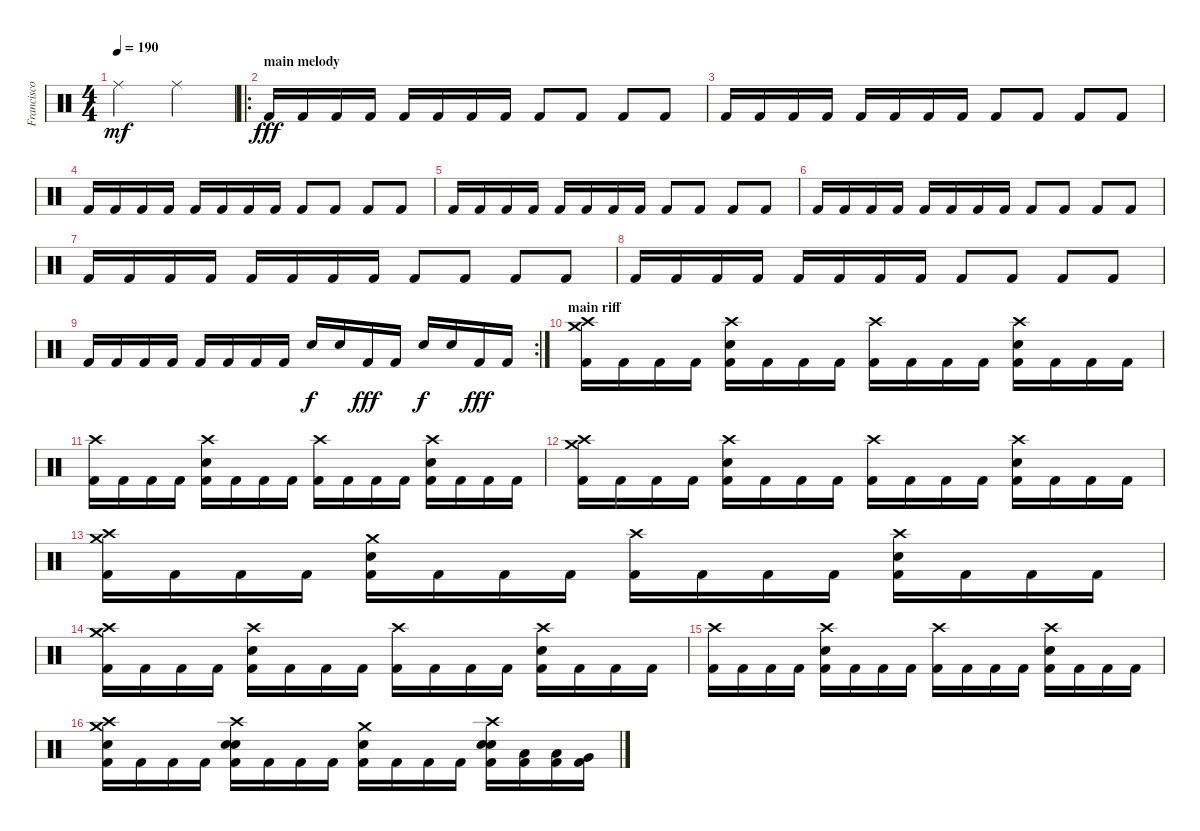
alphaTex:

\track ("Francisco Izquierdo (Percusión)" "Francisco ") {instrument percussion}
\staff {score}
\articulation defaults
\ts (4 4)
\tempo 190
\clef neutral
\ks c "Ride (middle)".2{dy mf} "Ride (middle)".2
|
\ro
\section ("" "main melody")
"Kick (hit) 2".16{dy fff} "Kick (hit) 2".16 "Kick (hit) 2".16 "Kick (hit) 2".16 "Kick (hit) 2".16 "Kick (hit) 2".16 "Kick (hit) 2".16 "Kick (hit) 2".16 "Kick (hit) 2".8 "Kick (hit) 2".8 "Kick (hit) 2".8 "Kick (hit) 2".8 |
"Kick (hit) 2".16 "Kick (hit) 2".16 "Kick (hit) 2".16 "Kick (hit) 2".16 "Kick (hit) 2".16 "Kick (hit) 2".16 "Kick (hit) 2".16 "Kick (hit) 2".16 "Kick (hit) 2".8 "Kick (hit) 2".8 "Kick (hit) 2".8 "Kick (hit) 2".8 |
"Kick (hit) 2".16 "Kick (hit) 2".16 "Kick (hit) 2".16 "Kick (hit) 2".16 "Kick (hit) 2".16 "Kick (hit) 2".16 "Kick (hit) 2".16 "Kick (hit) 2".16 "Kick (hit) 2".8 "Kick (hit) 2".8 "Kick (hit) 2".8 "Kick (hit) 2".8 |
"Kick (hit) 2".16 "Kick (hit) 2".16 "Kick (hit) 2".16 "Kick (hit) 2".16 "Kick (hit) 2".16 "Kick (hit) 2".16 "Kick (hit) 2".16 "Kick (hit) 2".16 "Kick (hit) 2".8 "Kick (hit) 2".8 "Kick (hit) 2".8 "Kick (hit) 2".8 |
"Kick (hit) 2".16 "Kick (hit) 2".16 "Kick (hit) 2".16 "Kick (hit) 2".16 "Kick (hit) 2".16 "Kick (hit) 2".16 "Kick (hit) 2".16 "Kick (hit) 2".16 "Kick (hit) 2".8 "Kick (hit) 2".8 "Kick (hit) 2".8 "Kick (hit) 2".8 |
"Kick (hit) 2".16 "Kick (hit) 2".16 "Kick (hit) 2".16 "Kick (hit) 2".16 "Kick (hit) 2".16 "Kick (hit) 2".16 "Kick (hit) 2".16 "Kick (hit) 2".16 "Kick (hit) 2".8 "Kick (hit) 2".8 "Kick (hit) 2".8 "Kick (hit) 2".8 |
"Kick (hit) 2".16 "Kick (hit) 2".16 "Kick (hit) 2".16 "Kick (hit) 2".16 "Kick (hit) 2".16 "Kick (hit) 2".16 "Kick (hit) 2".16 "Kick (hit) 2".16 "Kick (hit) 2".8 "Kick (hit) 2".8 "Kick (hit) 2".8 "Kick (hit) 2".8 |
\rc 2 "Kick (hit) 2".16 "Kick (hit) 2".16 "Kick (hit) 2".16 "Kick (hit) 2".16 "Kick (hit) 2".16 "Kick (hit) 2".16 "Kick (hit) 2".16 "Kick (hit) 2".16 "Electric Snare (hit)".16{dy f} "Electric Snare (hit)".16 "Kick (hit) 2".16{dy fff} "Kick (hit) 2".16 "Electric Snare (hit)".16{dy f} "Electric Snare (hit)".16 "Kick (hit) 2".16{dy fff} "Kick (hit) 2".16
|
\section ("" "main riff")
("Crash medium (hit)" "Crash high (hit)" "Kick (hit) 2").16 "Kick (hit) 2".16 "Kick (hit) 2".16 "Kick (hit) 2".16 ("Crash high (hit)" "Electric Snare (hit)" "Kick (hit) 2").16 "Kick (hit) 2".16 "Kick (hit) 2".16 "Kick (hit) 2".16 ("Crash high (hit)" "Kick (hit) 2").16 "Kick (hit) 2".16 "Kick (hit) 2".16 "Kick (hit) 2".16 ("Crash high (hit)" "Electric Snare (hit)" "Kick (hit) 2").16 "Kick (hit) 2".16 "Kick (hit) 2".16 "Kick (hit) 2".16 |
("Crash high (hit)" "Kick (hit) 2").16 "Kick (hit) 2".16 "Kick (hit) 2".16 "Kick (hit) 2".16 ("Crash high (hit)" "Electric Snare (hit)" "Kick (hit) 2").16 "Kick (hit) 2".16 "Kick (hit) 2".16 "Kick (hit) 2".16 ("Crash high (hit)" "Kick (hit) 2").16 "Kick (hit) 2".16 "Kick (hit) 2".16 "Kick (hit) 2".16 ("Crash high (hit)" "Electric Snare (hit)" "Kick (hit) 2").16 "Kick (hit) 2".16 "Kick (hit) 2".16 "Kick (hit) 2".16 |
("Crash medium (hit)" "Crash high (hit)" "Kick (hit) 2").16 "Kick (hit) 2".16 "Kick (hit) 2".16 "Kick (hit) 2".16 ("Crash high (hit)" "Electric Snare (hit)" "Kick (hit) 2").16 "Kick (hit) 2".16 "Kick (hit) 2".16 "Kick (hit) 2".16 ("Crash high (hit)" "Kick (hit) 2").16 "Kick (hit) 2".16 "Kick (hit) 2".16 "Kick (hit) 2".16 ("Crash high (hit)" "Electric Snare (hit)" "Kick (hit) 2").16 "Kick (hit) 2".16 "Kick (hit) 2".16 "Kick (hit) 2".16 |
("Crash high (hit)" "Crash medium (hit)" "Kick (hit) 2").16 "Kick (hit) 2".16 "Kick (hit) 2".16 "Kick (hit) 2".16 ("Crash medium (hit)" "Electric Snare (hit)" "Kick (hit) 2").16 "Kick (hit) 2".16 "Kick (hit) 2".16 "Kick (hit) 2".16 ("Crash high (hit)" "Kick (hit) 2").16 "Kick (hit) 2".16 "Kick (hit) 2".16 "Kick (hit) 2".16 ("Crash high (hit)" "Electric Snare (hit)" "Kick (hit) 2").16 "Kick (hit) 2".16 "Kick (hit) 2".16 "Kick (hit) 2".16 |
("Crash medium (hit)" "Crash high (hit)" "Kick (hit) 2").16 "Kick (hit) 2".16 "Kick (hit) 2".16 "Kick (hit) 2".16 ("Crash high (hit)" "Electric Snare (hit)" "Kick (hit) 2").16 "Kick (hit) 2".16 "Kick (hit) 2".16 "Kick (hit) 2".16 ("Crash high (hit)" "Kick (hit) 2").16 "Kick (hit) 2".16 "Kick (hit) 2".16 "Kick (hit) 2".16 ("Crash high (hit)" "Electric Snare (hit)" "Kick (hit) 2").16 "Kick (hit) 2".16 "Kick (hit) 2".16 "Kick (hit) 2".16 |
("Crash high (hit)" "Kick (hit) 2").16 "Kick (hit) 2".16 "Kick (hit) 2".16 "Kick (hit) 2".16 ("Crash high (hit)" "Electric Snare (hit)" "Kick (hit) 2").16 "Kick (hit) 2".16 "Kick (hit) 2".16 "Kick (hit) 2".16 ("Crash high (hit)" "Kick (hit) 2").16 "Kick (hit) 2".16 "Kick (hit) 2".16 "Kick (hit) 2".16 ("Crash high (hit)" "Electric Snare (hit)" "Kick (hit) 2").16 "Kick (hit) 2".16 "Kick (hit) 2".16 "Kick (hit) 2".16 |
("Crash medium (hit)" "Crash high (hit)" "Electric Snare (hit)" "Kick (hit) 2").16 "Kick (hit) 2".16 "Kick (hit) 2".16 "Kick (hit) 2".16 ("Crash high (hit)" "Electric Snare (hit)" "Electric Snare (hit)" "Kick (hit) 2").16 "Kick (hit) 2".16 "Kick (hit) 2".16 "Kick (hit) 2".16 ("Crash medium (hit)" "Electric Snare (hit)" "Kick (hit) 2").16 "Kick (hit) 2".16 "Kick (hit) 2".16 "Kick (hit) 2".16 ("Crash high (hit)" "Electric Snare (hit)" "Electric Snare (hit)" "Kick (hit) 2").16 ("Low Tom (hit)" "Kick (hit) 2").16 ("Low Tom (hit)" "Kick (hit) 2").16 ("Very Low Tom (hit)" "Kick (hit) 2").16
